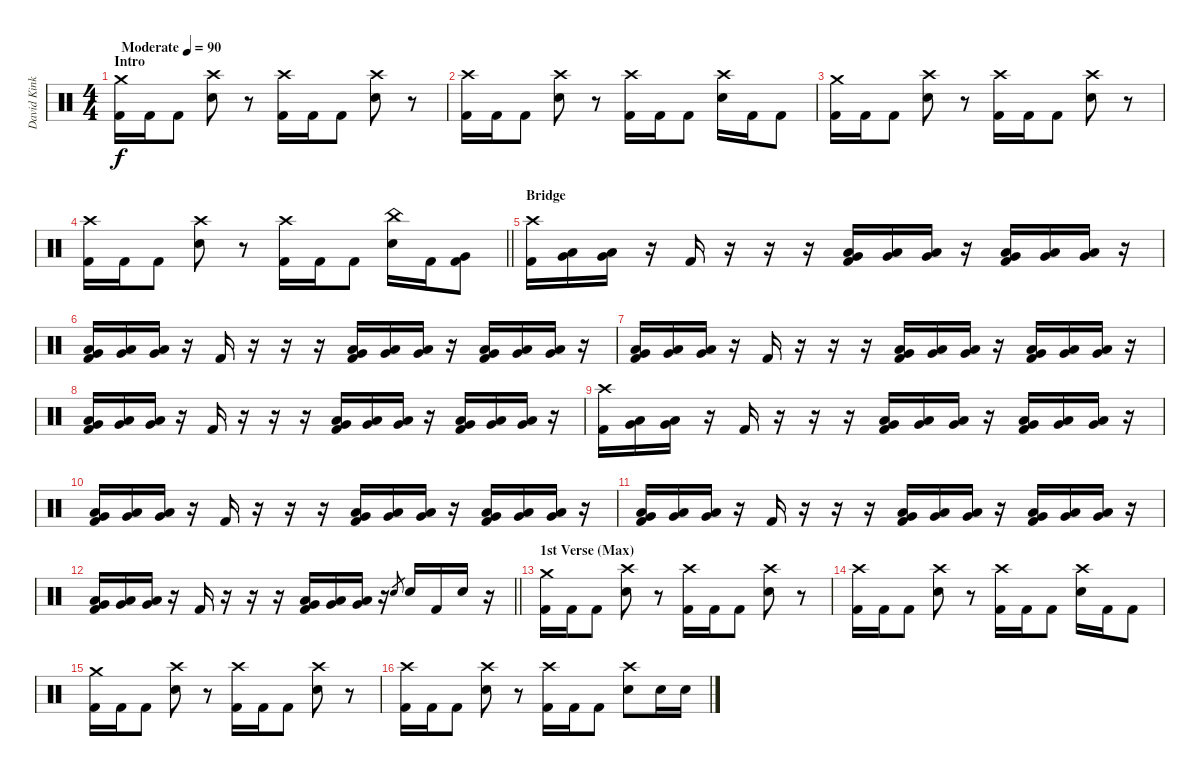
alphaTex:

\track ("David Kinkade" "David Kink") {instrument percussion}
\staff {score}
\articulation defaults
\ts (4 4)
\section ("" "Intro")
\tempo (90 "Moderate")
\clef neutral
\ks c
("Crash medium (hit)" "Kick (hit) 2").16{dy f} "Kick (hit) 2".16 "Kick (hit) 2".8 ("Crash high (hit)" "Snare (hit) 2").8 r.8 ("Crash high (hit)" "Kick (hit) 2").16 "Kick (hit) 2".16 "Kick (hit) 2".8 ("Crash high (hit)" "Snare (hit) 2").8 r.8 |
("Crash high (hit)" "Kick (hit) 2").16 "Kick (hit) 2".16 "Kick (hit) 2".8 ("Crash high (hit)" "Snare (hit) 2").8 r.8 ("Crash high (hit)" "Kick (hit) 2").16 "Kick (hit) 2".16 "Kick (hit) 2".8 ("Crash high (hit)" "Snare (hit) 2").16 "Kick (hit) 2".16 "Kick (hit) 2".8 |
("Crash medium (hit)" "Kick (hit) 2").16 "Kick (hit) 2".16 "Kick (hit) 2".8 ("Crash high (hit)" "Snare (hit) 2").8 r.8 ("Crash high (hit)" "Kick (hit) 2").16 "Kick (hit) 2".16 "Kick (hit) 2".8 ("Crash high (hit)" "Snare (hit) 2").8 r.8 |
\barLineRight lightlight
("Crash high (hit)" "Kick (hit) 2").16 "Kick (hit) 2".16 "Kick (hit) 2".8 ("Crash high (hit)" "Snare (hit) 2").8 r.8 ("Crash high (hit)" "Kick (hit) 2").16 "Kick (hit) 2".16 "Kick (hit) 2".8 ("China (hit)" "Snare (hit) 2").16 "Kick (hit) 2".16 ("Very Low Tom (hit)" "Kick (hit) 2").8 |
\section ("" "Bridge")
("Crash high (hit)" "Kick (hit) 2").16 ("Very Low Tom (hit)" "Low Floor Tom (hit)").16 ("Very Low Tom (hit)" "Low Floor Tom (hit)").16 r.16 "Kick (hit) 2".16 r.16 r.16 r.16 ("Very Low Tom (hit)" "Low Floor Tom (hit)" "Kick (hit) 2").16 ("Very Low Tom (hit)" "Low Floor Tom (hit)").16 ("Very Low Tom (hit)" "Low Floor Tom (hit)").16 r.16 ("Very Low Tom (hit)" "Low Floor Tom (hit)" "Kick (hit) 2").16 ("Very Low Tom (hit)" "Low Floor Tom (hit)").16 ("Very Low Tom (hit)" "Low Floor Tom (hit)").16 r.16 |
("Very Low Tom (hit)" "Low Floor Tom (hit)" "Kick (hit) 2").16 ("Very Low Tom (hit)" "Low Floor Tom (hit)").16 ("Very Low Tom (hit)" "Low Floor Tom (hit)").16 r.16 "Kick (hit) 2".16 r.16 r.16 r.16 ("Very Low Tom (hit)" "Low Floor Tom (hit)" "Kick (hit) 2").16 ("Very Low Tom (hit)" "Low Floor Tom (hit)").16 ("Very Low Tom (hit)" "Low Floor Tom (hit)").16 r.16 ("Very Low Tom (hit)" "Low Floor Tom (hit)" "Kick (hit) 2").16 ("Very Low Tom (hit)" "Low Floor Tom (hit)").16 ("Very Low Tom (hit)" "Low Floor Tom (hit)").16 r.16 |
("Very Low Tom (hit)" "Low Floor Tom (hit)" "Kick (hit) 2").16 ("Very Low Tom (hit)" "Low Floor Tom (hit)").16 ("Very Low Tom (hit)" "Low Floor Tom (hit)").16 r.16 "Kick (hit) 2".16 r.16 r.16 r.16 ("Very Low Tom (hit)" "Low Floor Tom (hit)" "Kick (hit) 2").16 ("Very Low Tom (hit)" "Low Floor Tom (hit)").16 ("Very Low Tom (hit)" "Low Floor Tom (hit)").16 r.16 ("Very Low Tom (hit)" "Low Floor Tom (hit)" "Kick (hit) 2").16 ("Very Low Tom (hit)" "Low Floor Tom (hit)").16 ("Very Low Tom (hit)" "Low Floor Tom (hit)").16 r.16 |
("Very Low Tom (hit)" "Low Floor Tom (hit)" "Kick (hit) 2").16 ("Very Low Tom (hit)" "Low Floor Tom (hit)").16 ("Very Low Tom (hit)" "Low Floor Tom (hit)").16 r.16 "Kick (hit) 2".16 r.16 r.16 r.16 ("Very Low Tom (hit)" "Low Floor Tom (hit)" "Kick (hit) 2").16 ("Very Low Tom (hit)" "Low Floor Tom (hit)").16 ("Very Low Tom (hit)" "Low Floor Tom (hit)").16 r.16 ("Very Low Tom (hit)" "Low Floor Tom (hit)" "Kick (hit) 2").16 ("Very Low Tom (hit)" "Low Floor Tom (hit)").16 ("Very Low Tom (hit)" "Low Floor Tom (hit)").16 r.16 |
("Crash high (hit)" "Kick (hit) 2").16 ("Very Low Tom (hit)" "Low Floor Tom (hit)").16 ("Very Low Tom (hit)" "Low Floor Tom (hit)").16 r.16 "Kick (hit) 2".16 r.16 r.16 r.16 ("Very Low Tom (hit)" "Low Floor Tom (hit)" "Kick (hit) 2").16 ("Very Low Tom (hit)" "Low Floor Tom (hit)").16 ("Very Low Tom (hit)" "Low Floor Tom (hit)").16 r.16 ("Very Low Tom (hit)" "Low Floor Tom (hit)" "Kick (hit) 2").16 ("Very Low Tom (hit)" "Low Floor Tom (hit)").16 ("Very Low Tom (hit)" "Low Floor Tom (hit)").16 r.16 |
("Very Low Tom (hit)" "Low Floor Tom (hit)" "Kick (hit) 2").16 ("Very Low Tom (hit)" "Low Floor Tom (hit)").16 ("Very Low Tom (hit)" "Low Floor Tom (hit)").16 r.16 "Kick (hit) 2".16 r.16 r.16 r.16 ("Very Low Tom (hit)" "Low Floor Tom (hit)" "Kick (hit) 2").16 ("Very Low Tom (hit)" "Low Floor Tom (hit)").16 ("Very Low Tom (hit)" "Low Floor Tom (hit)").16 r.16 ("Very Low Tom (hit)" "Low Floor Tom (hit)" "Kick (hit) 2").16 ("Very Low Tom (hit)" "Low Floor Tom (hit)").16 ("Very Low Tom (hit)" "Low Floor Tom (hit)").16 r.16 |
("Very Low Tom (hit)" "Low Floor Tom (hit)" "Kick (hit) 2").16 ("Very Low Tom (hit)" "Low Floor Tom (hit)").16 ("Very Low Tom (hit)" "Low Floor Tom (hit)").16 r.16 "Kick (hit) 2".16 r.16 r.16 r.16 ("Very Low Tom (hit)" "Low Floor Tom (hit)" "Kick (hit) 2").16 ("Very Low Tom (hit)" "Low Floor Tom (hit)").16 ("Very Low Tom (hit)" "Low Floor Tom (hit)").16 r.16 ("Very Low Tom (hit)" "Low Floor Tom (hit)" "Kick (hit) 2").16 ("Very Low Tom (hit)" "Low Floor Tom (hit)").16 ("Very Low Tom (hit)" "Low Floor Tom (hit)").16 r.16 |
\barLineRight lightlight
("Very Low Tom (hit)" "Low Floor Tom (hit)" "Kick (hit) 2").16 ("Very Low Tom (hit)" "Low Floor Tom (hit)").16 ("Very Low Tom (hit)" "Low Floor Tom (hit)").16 r.16 "Kick (hit) 2".16 r.16 r.16 r.16 ("Very Low Tom (hit)" "Low Floor Tom (hit)" "Kick (hit) 2").16 ("Very Low Tom (hit)" "Low Floor Tom (hit)").16 ("Very Low Tom (hit)" "Low Floor Tom (hit)").16 r.16 "Snare (hit) 2".8{gr} "Snare (hit) 2".16 "Kick (hit) 2".16 "Snare (hit) 2".16 r.16 |
\section ("" "1st Verse (Max)")
("Crash medium (hit)" "Kick (hit) 2").16 "Kick (hit) 2".16 "Kick (hit) 2".8 ("Crash high (hit)" "Snare (hit) 2").8 r.8 ("Crash high (hit)" "Kick (hit) 2").16 "Kick (hit) 2".16 "Kick (hit) 2".8 ("Crash high (hit)" "Snare (hit) 2").8 r.8 |
("Crash high (hit)" "Kick (hit) 2").16 "Kick (hit) 2".16 "Kick (hit) 2".8 ("Crash high (hit)" "Snare (hit) 2").8 r.8 ("Crash high (hit)" "Kick (hit) 2").16 "Kick (hit) 2".16 "Kick (hit) 2".8 ("Crash high (hit)" "Snare (hit) 2").16 "Kick (hit) 2".16 "Kick (hit) 2".8 |
("Crash medium (hit)" "Kick (hit) 2").16 "Kick (hit) 2".16 "Kick (hit) 2".8 ("Crash high (hit)" "Snare (hit) 2").8 r.8 ("Crash high (hit)" "Kick (hit) 2").16 "Kick (hit) 2".16 "Kick (hit) 2".8 ("Crash high (hit)" "Snare (hit) 2").8 r.8 |
("Crash high (hit)" "Kick (hit) 2").16 "Kick (hit) 2".16 "Kick (hit) 2".8 ("Crash high (hit)" "Snare (hit) 2").8 r.8 ("Crash high (hit)" "Kick (hit) 2").16 "Kick (hit) 2".16 "Kick (hit) 2".8 ("Crash high (hit)" "Snare (hit) 2").8 "Snare (hit) 2".16 "Snare (hit) 2".16
